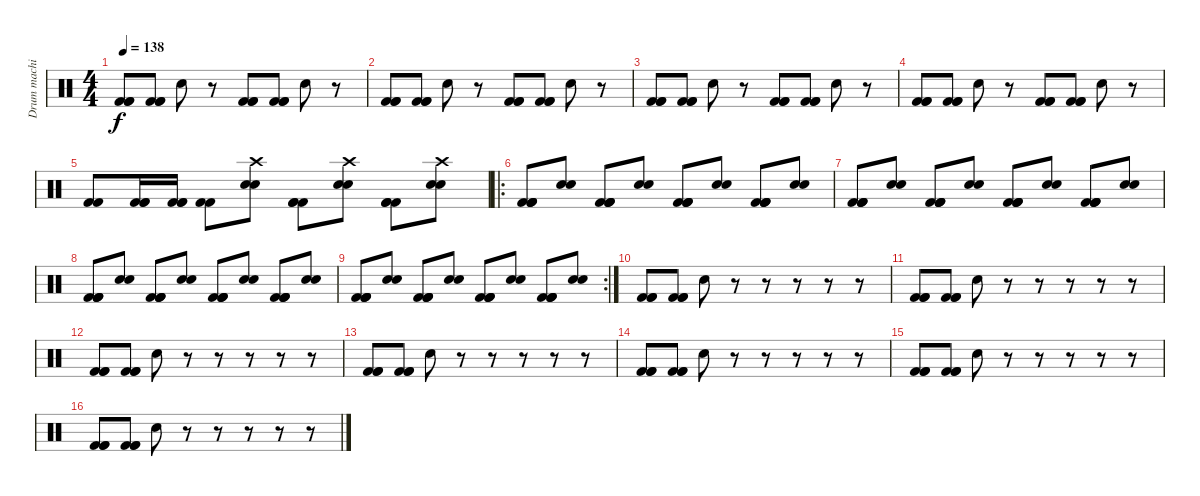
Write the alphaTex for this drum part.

\track ("Drum machine" "Drum machi") {instrument percussion}
\staff {score}
\articulation defaults
\ts (4 4)
\tempo 138
\clef neutral
\ks c
("Kick (hit) 2" "Kick (hit) 2" "Kick (hit) 2").8{dy f} ("Kick (hit) 2" "Kick (hit) 2" "Kick (hit) 2").8 "Electric Snare (hit)".8 r.8 ("Kick (hit) 2" "Kick (hit) 2" "Kick (hit) 2").8 ("Kick (hit) 2" "Kick (hit) 2" "Kick (hit) 2").8 "Electric Snare (hit)".8 r.8 |
("Kick (hit) 2" "Kick (hit) 2" "Kick (hit) 2").8 ("Kick (hit) 2" "Kick (hit) 2" "Kick (hit) 2").8 "Electric Snare (hit)".8 r.8 ("Kick (hit) 2" "Kick (hit) 2" "Kick (hit) 2").8 ("Kick (hit) 2" "Kick (hit) 2" "Kick (hit) 2").8 "Electric Snare (hit)".8 r.8 |
("Kick (hit) 2" "Kick (hit) 2" "Kick (hit) 2").8 ("Kick (hit) 2" "Kick (hit) 2" "Kick (hit) 2").8 "Electric Snare (hit)".8 r.8 ("Kick (hit) 2" "Kick (hit) 2" "Kick (hit) 2").8 ("Kick (hit) 2" "Kick (hit) 2" "Kick (hit) 2").8 "Electric Snare (hit)".8 r.8 |
("Kick (hit) 2" "Kick (hit) 2" "Kick (hit) 2").8 ("Kick (hit) 2" "Kick (hit) 2" "Kick (hit) 2").8 "Electric Snare (hit)".8 r.8 ("Kick (hit) 2" "Kick (hit) 2" "Kick (hit) 2").8 ("Kick (hit) 2" "Kick (hit) 2" "Kick (hit) 2").8 "Electric Snare (hit)".8 r.8 |
("Kick (hit) 2" "Kick (hit) 2").8 ("Kick (hit) 2" "Kick (hit) 2" "Kick (hit) 2").16 ("Kick (hit) 2" "Kick (hit) 2" "Kick (hit) 2").16 ("Kick (hit) 2" "Kick (hit) 2").8 ("Electric Snare (hit)" "Electric Snare (hit)" "Crash high (hit)").8 ("Kick (hit) 2" "Kick (hit) 2" "Kick (hit) 2").8 ("Electric Snare (hit)" "Electric Snare (hit)" "Crash high (hit)").8 ("Kick (hit) 2" "Kick (hit) 2" "Kick (hit) 2").8 ("Electric Snare (hit)" "Electric Snare (hit)" "Crash high (hit)").8 |
\ro
("Kick (hit) 2" "Kick (hit) 2" "Kick (hit) 2" "Kick (hit) 2").8 ("Electric Snare (hit)" "Electric Snare (hit)").8 ("Kick (hit) 2" "Kick (hit) 2" "Kick (hit) 2" "Kick (hit) 2").8 ("Electric Snare (hit)" "Electric Snare (hit)").8 ("Kick (hit) 2" "Kick (hit) 2" "Kick (hit) 2" "Kick (hit) 2").8 ("Electric Snare (hit)" "Electric Snare (hit)").8 ("Kick (hit) 2" "Kick (hit) 2" "Kick (hit) 2" "Kick (hit) 2").8 ("Electric Snare (hit)" "Electric Snare (hit)").8 |
("Kick (hit) 2" "Kick (hit) 2" "Kick (hit) 2" "Kick (hit) 2").8 ("Electric Snare (hit)" "Electric Snare (hit)").8 ("Kick (hit) 2" "Kick (hit) 2" "Kick (hit) 2" "Kick (hit) 2").8 ("Electric Snare (hit)" "Electric Snare (hit)").8 ("Kick (hit) 2" "Kick (hit) 2" "Kick (hit) 2" "Kick (hit) 2").8 ("Electric Snare (hit)" "Electric Snare (hit)").8 ("Kick (hit) 2" "Kick (hit) 2" "Kick (hit) 2" "Kick (hit) 2").8 ("Electric Snare (hit)" "Electric Snare (hit)").8 |
("Kick (hit) 2" "Kick (hit) 2" "Kick (hit) 2" "Kick (hit) 2").8 ("Electric Snare (hit)" "Electric Snare (hit)").8 ("Kick (hit) 2" "Kick (hit) 2" "Kick (hit) 2" "Kick (hit) 2").8 ("Electric Snare (hit)" "Electric Snare (hit)").8 ("Kick (hit) 2" "Kick (hit) 2" "Kick (hit) 2" "Kick (hit) 2").8 ("Electric Snare (hit)" "Electric Snare (hit)").8 ("Kick (hit) 2" "Kick (hit) 2" "Kick (hit) 2" "Kick (hit) 2").8 ("Electric Snare (hit)" "Electric Snare (hit)").8 |
\rc 2
("Kick (hit) 2" "Kick (hit) 2" "Kick (hit) 2" "Kick (hit) 2").8 ("Electric Snare (hit)" "Electric Snare (hit)").8 ("Kick (hit) 2" "Kick (hit) 2" "Kick (hit) 2" "Kick (hit) 2").8 ("Electric Snare (hit)" "Electric Snare (hit)").8 ("Kick (hit) 2" "Kick (hit) 2" "Kick (hit) 2" "Kick (hit) 2").8 ("Electric Snare (hit)" "Electric Snare (hit)").8 ("Kick (hit) 2" "Kick (hit) 2" "Kick (hit) 2" "Kick (hit) 2").8 ("Electric Snare (hit)" "Electric Snare (hit)").8 |
("Kick (hit) 2" "Kick (hit) 2" "Kick (hit) 2").8 ("Kick (hit) 2" "Kick (hit) 2" "Kick (hit) 2").8 "Electric Snare (hit)".8 r.8 r.8 r.8 r.8 r.8 |
("Kick (hit) 2" "Kick (hit) 2" "Kick (hit) 2").8 ("Kick (hit) 2" "Kick (hit) 2" "Kick (hit) 2").8 "Electric Snare (hit)".8 r.8 r.8 r.8 r.8 r.8 |
("Kick (hit) 2" "Kick (hit) 2" "Kick (hit) 2").8 ("Kick (hit) 2" "Kick (hit) 2" "Kick (hit) 2").8 "Electric Snare (hit)".8 r.8 r.8 r.8 r.8 r.8 |
("Kick (hit) 2" "Kick (hit) 2" "Kick (hit) 2").8 ("Kick (hit) 2" "Kick (hit) 2" "Kick (hit) 2").8 "Electric Snare (hit)".8 r.8 r.8 r.8 r.8 r.8 |
("Kick (hit) 2" "Kick (hit) 2" "Kick (hit) 2").8 ("Kick (hit) 2" "Kick (hit) 2" "Kick (hit) 2").8 "Electric Snare (hit)".8 r.8 r.8 r.8 r.8 r.8 |
("Kick (hit) 2" "Kick (hit) 2" "Kick (hit) 2").8 ("Kick (hit) 2" "Kick (hit) 2" "Kick (hit) 2").8 "Electric Snare (hit)".8 r.8 r.8 r.8 r.8 r.8 |
("Kick (hit) 2" "Kick (hit) 2" "Kick (hit) 2").8 ("Kick (hit) 2" "Kick (hit) 2" "Kick (hit) 2").8 "Electric Snare (hit)".8 r.8 r.8 r.8 r.8 r.8
